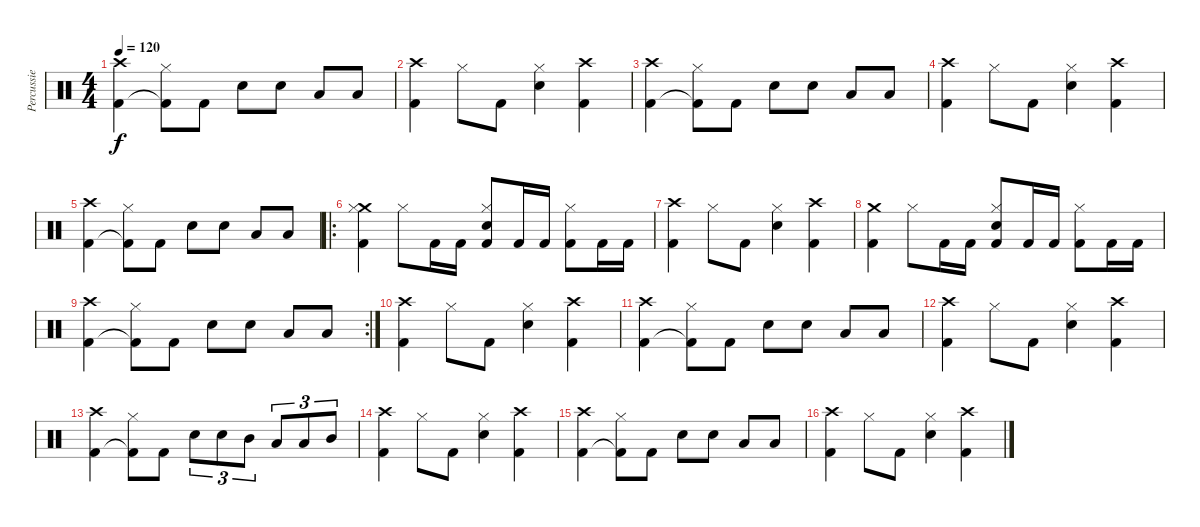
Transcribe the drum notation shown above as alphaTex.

\track ("Percussie" "Percussie") {instrument percussion}
\staff {score}
\articulation defaults
\ts (4 4)
\tempo 120
\clef neutral
\ks c
("Crash high (hit)" "Kick (hit) 2").4{dy f} ("Hi-Hat (closed)" "Kick (hit) 2"{t}).8 "Kick (hit) 2".8 "Snare (hit) 2".8 "Snare (hit) 2".8 "Low Tom (hit)".8 "Low Floor Tom (hit)".8 |
("Crash high (hit)" "Kick (hit) 2").4 "Hi-Hat (closed)".8 "Kick (hit) 2".8 ("Hi-Hat (closed)" "Snare (hit) 2").4 ("Crash high (hit)" "Kick (hit) 2").4 |
("Crash high (hit)" "Kick (hit) 2").4 ("Hi-Hat (closed)" "Kick (hit) 2"{t}).8 "Kick (hit) 2".8 "Snare (hit) 2".8 "Snare (hit) 2".8 "Low Tom (hit)".8 "Low Floor Tom (hit)".8 |
("Crash high (hit)" "Kick (hit) 2").4 "Hi-Hat (closed)".8 "Kick (hit) 2".8 ("Hi-Hat (closed)" "Snare (hit) 2").4 ("Crash high (hit)" "Kick (hit) 2").4 |
("Crash high (hit)" "Kick (hit) 2").4 ("Hi-Hat (closed)" "Kick (hit) 2"{t}).8 "Kick (hit) 2".8 "Snare (hit) 2".8 "Snare (hit) 2".8 "Low Tom (hit)".8 "Low Floor Tom (hit)".8 |
\ro
("Crash medium (hit)" "Hi-Hat (closed)" "Kick (hit) 2").4 "Hi-Hat (closed)".8 "Kick (hit) 2".16 "Kick (hit) 2".16 ("Hi-Hat (closed)" "Snare (hit) 2" "Kick (hit) 2").8 "Kick (hit) 2".16 "Kick (hit) 2".16 ("Hi-Hat (closed)" "Kick (hit) 2").8 "Kick (hit) 2".16 "Kick (hit) 2".16 |
("Crash high (hit)" "Kick (hit) 2").4 "Hi-Hat (closed)".8 "Kick (hit) 2".8 ("Hi-Hat (closed)" "Snare (hit) 2").4 ("Crash high (hit)" "Kick (hit) 2").4 |
("Crash medium (hit)" "Kick (hit) 2").4 "Hi-Hat (closed)".8 "Kick (hit) 2".16 "Kick (hit) 2".16 ("Hi-Hat (closed)" "Snare (hit) 2" "Kick (hit) 2").8 "Kick (hit) 2".16 "Kick (hit) 2".16 ("Hi-Hat (closed)" "Kick (hit) 2").8 "Kick (hit) 2".16 "Kick (hit) 2".16 |
\rc 2
("Crash high (hit)" "Kick (hit) 2").4 ("Hi-Hat (closed)" "Kick (hit) 2"{t}).8 "Kick (hit) 2".8 "Snare (hit) 2".8 "Snare (hit) 2".8 "Low Tom (hit)".8 "Low Floor Tom (hit)".8 |
("Crash high (hit)" "Kick (hit) 2").4 "Hi-Hat (closed)".8 "Kick (hit) 2".8 ("Hi-Hat (closed)" "Snare (hit) 2").4 ("Crash high (hit)" "Kick (hit) 2").4 |
("Crash high (hit)" "Kick (hit) 2").4 ("Hi-Hat (closed)" "Kick (hit) 2"{t}).8 "Kick (hit) 2".8 "Snare (hit) 2".8 "Snare (hit) 2".8 "Low Tom (hit)".8 "Low Floor Tom (hit)".8 |
("Crash high (hit)" "Kick (hit) 2").4 "Hi-Hat (closed)".8 "Kick (hit) 2".8 ("Hi-Hat (closed)" "Snare (hit) 2").4 ("Crash high (hit)" "Kick (hit) 2").4 |
("Crash high (hit)" "Kick (hit) 2").4 ("Hi-Hat (closed)" "Kick (hit) 2"{t}).8 "Kick (hit) 2".8 "Snare (hit) 2".8{tu (3 2)} "Snare (hit) 2".8{tu (3 2)} "Mid Tom (hit)".8{tu (3 2)} "Low Tom (hit)".8{tu (3 2)} "Low Floor Tom (hit)".8{tu (3 2)} "Mid Tom (hit)".8{tu (3 2)} |
("Crash high (hit)" "Kick (hit) 2").4 "Hi-Hat (closed)".8 "Kick (hit) 2".8 ("Hi-Hat (closed)" "Snare (hit) 2").4 ("Crash high (hit)" "Kick (hit) 2").4 |
("Crash high (hit)" "Kick (hit) 2").4 ("Hi-Hat (closed)" "Kick (hit) 2"{t}).8 "Kick (hit) 2".8 "Snare (hit) 2".8 "Snare (hit) 2".8 "Low Tom (hit)".8 "Low Floor Tom (hit)".8 |
("Crash high (hit)" "Kick (hit) 2").4 "Hi-Hat (closed)".8 "Kick (hit) 2".8 ("Hi-Hat (closed)" "Snare (hit) 2").4 ("Crash high (hit)" "Kick (hit) 2").4
